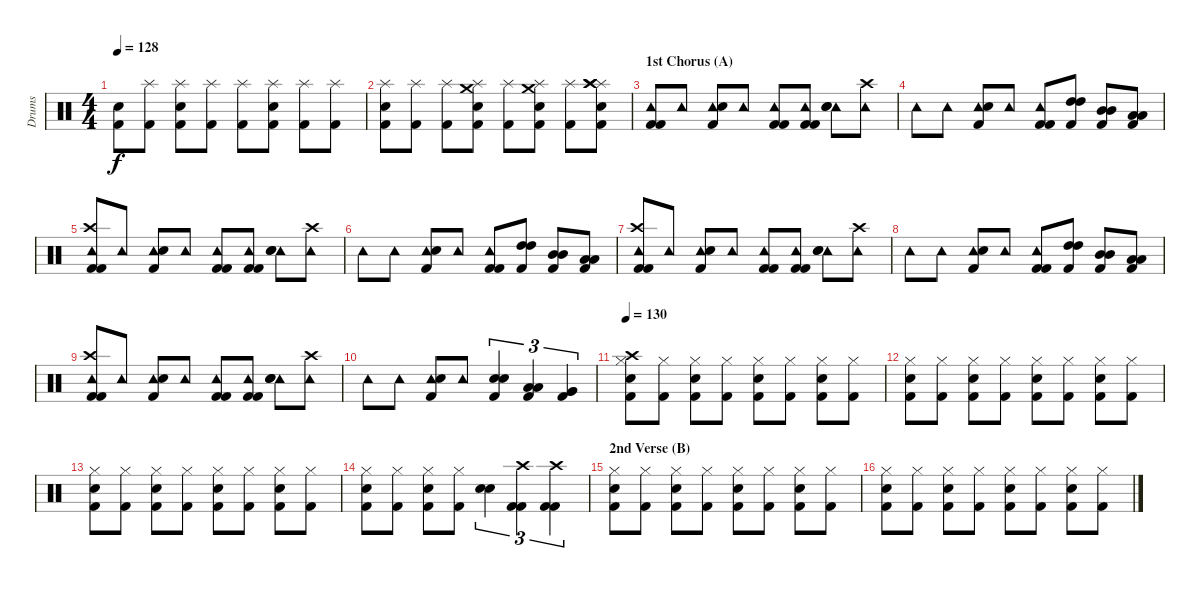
\track ("Drums" "Drums") {instrument percussion}
\staff {score}
\articulation defaults
\ts (4 4)
\tempo 128
\clef neutral
\ks c
("Kick (hit) 2" "Snare (hit)"{t}).8{dy f} ("Splash (hit)" "Kick (hit) 2").8 ("Splash (hit)" "Kick (hit) 2" "Snare (hit) 2").8 ("Splash (hit)" "Kick (hit) 2").8 ("Splash (hit)" "Kick (hit) 2").8 ("Splash (hit)" "Kick (hit) 2" "Snare (hit) 2").8 ("Splash (hit)" "Kick (hit) 2").8 ("Splash (hit)" "Kick (hit) 2").8 |
("Splash (hit)" "Kick (hit) 2" "Snare (hit) 2").8 ("Splash (hit)" "Kick (hit) 2").8 ("Splash (hit)" "Kick (hit) 2").8 ("Splash (hit)" "Kick (hit) 2" "Snare (hit) 2" "Crash medium (hit)").8 ("Splash (hit)" "Kick (hit) 2").8 ("Splash (hit)" "Kick (hit) 2" "Snare (hit) 2" "Crash medium (hit)").8 ("Splash (hit)" "Kick (hit) 2").8 ("Splash (hit)" "Kick (hit) 2" "Snare (hit) 2" "Crash high (hit)" "Crash high (hit)").8 |
\section ("" "1st Chorus (A)")
("Tambourine (hit)" "Kick (hit) 2" "Kick (hit) 2").8 "Tambourine (hit)".8 ("Tambourine (hit)" "Kick (hit) 2" "Snare (hit) 2").8 "Tambourine (hit)".8 ("Tambourine (hit)" "Kick (hit) 2" "Kick (hit) 2").8 ("Tambourine (hit)" "Kick (hit) 2" "Kick (hit) 2").8 ("Tambourine (hit)" "Snare (hit) 2" "Snare (hit) 2").8 ("Tambourine (hit)" "Crash high (hit)").8 |
"Tambourine (hit)".8 "Tambourine (hit)".8 ("Tambourine (hit)" "Kick (hit) 2" "Snare (hit) 2").8 "Tambourine (hit)".8 ("Tambourine (hit)" "Kick (hit) 2" "Kick (hit) 2").8 ("Kick (hit) 2" "High Tom (hit)" "High Tom (hit)").8 ("Kick (hit) 2" "Mid Tom (hit)" "Mid Tom (hit)").8 ("Kick (hit) 2" "Low Tom (hit)" "Low Tom (hit)").8 |
("Tambourine (hit)" "Kick (hit) 2" "Kick (hit) 2" "Crash high (hit)").8 "Tambourine (hit)".8 ("Tambourine (hit)" "Kick (hit) 2" "Snare (hit) 2").8 "Tambourine (hit)".8 ("Tambourine (hit)" "Kick (hit) 2" "Kick (hit) 2").8 ("Tambourine (hit)" "Kick (hit) 2" "Kick (hit) 2").8 ("Tambourine (hit)" "Snare (hit) 2" "Snare (hit) 2").8 ("Tambourine (hit)" "Crash high (hit)").8 |
"Tambourine (hit)".8 "Tambourine (hit)".8 ("Tambourine (hit)" "Kick (hit) 2" "Snare (hit) 2").8 "Tambourine (hit)".8 ("Tambourine (hit)" "Kick (hit) 2" "Kick (hit) 2").8 ("Kick (hit) 2" "High Tom (hit)" "High Tom (hit)").8 ("Kick (hit) 2" "Mid Tom (hit)" "Mid Tom (hit)").8 ("Kick (hit) 2" "Low Tom (hit)" "Low Tom (hit)").8 |
("Tambourine (hit)" "Kick (hit) 2" "Kick (hit) 2" "Crash high (hit)").8 "Tambourine (hit)".8 ("Tambourine (hit)" "Kick (hit) 2" "Snare (hit) 2").8 "Tambourine (hit)".8 ("Tambourine (hit)" "Kick (hit) 2" "Kick (hit) 2").8 ("Tambourine (hit)" "Kick (hit) 2" "Kick (hit) 2").8 ("Tambourine (hit)" "Snare (hit) 2" "Snare (hit) 2").8 ("Tambourine (hit)" "Crash high (hit)").8 |
"Tambourine (hit)".8 "Tambourine (hit)".8 ("Tambourine (hit)" "Kick (hit) 2" "Snare (hit) 2").8 "Tambourine (hit)".8 ("Tambourine (hit)" "Kick (hit) 2" "Kick (hit) 2").8 ("Kick (hit) 2" "High Tom (hit)" "High Tom (hit)").8 ("Kick (hit) 2" "Mid Tom (hit)" "Mid Tom (hit)").8 ("Kick (hit) 2" "Low Tom (hit)" "Low Tom (hit)").8 |
("Tambourine (hit)" "Kick (hit) 2" "Kick (hit) 2" "Crash high (hit)").8 "Tambourine (hit)".8 ("Tambourine (hit)" "Kick (hit) 2" "Snare (hit) 2").8 "Tambourine (hit)".8 ("Tambourine (hit)" "Kick (hit) 2" "Kick (hit) 2").8 ("Tambourine (hit)" "Kick (hit) 2" "Kick (hit) 2").8 ("Tambourine (hit)" "Snare (hit) 2" "Snare (hit) 2").8 ("Tambourine (hit)" "Crash high (hit)").8 |
"Tambourine (hit)".8 "Tambourine (hit)".8 ("Tambourine (hit)" "Kick (hit) 2" "Snare (hit) 2").8 "Tambourine (hit)".8 ("Kick (hit) 2" "Snare (hit) 2" "Snare (hit) 2").4{tu (3 2)} ("Kick (hit) 2" "Low Tom (hit)" "Low Tom (hit)").4{tu (3 2)} ("Kick (hit) 2" "Very Low Tom (hit)" "Very Low Tom (hit)").4{tu (3 2)} |
\tempo 130
("Hi-Hat (closed)" "Kick (hit) 2" "Snare (hit) 2" "Crash high (hit)").8 ("Hi-Hat (closed)" "Kick (hit) 2").8 ("Hi-Hat (closed)" "Kick (hit) 2" "Snare (hit) 2").8 ("Hi-Hat (closed)" "Kick (hit) 2").8 ("Hi-Hat (closed)" "Kick (hit) 2" "Snare (hit) 2").8 ("Hi-Hat (closed)" "Kick (hit) 2").8 ("Hi-Hat (closed)" "Kick (hit) 2" "Snare (hit) 2").8 ("Hi-Hat (closed)" "Kick (hit) 2").8 |
("Hi-Hat (closed)" "Kick (hit) 2" "Snare (hit) 2").8 ("Hi-Hat (closed)" "Kick (hit) 2").8 ("Hi-Hat (closed)" "Kick (hit) 2" "Snare (hit) 2").8 ("Hi-Hat (closed)" "Kick (hit) 2").8 ("Hi-Hat (closed)" "Kick (hit) 2" "Snare (hit) 2").8 ("Hi-Hat (closed)" "Kick (hit) 2").8 ("Hi-Hat (closed)" "Kick (hit) 2" "Snare (hit) 2").8 ("Hi-Hat (closed)" "Kick (hit) 2").8 |
("Hi-Hat (closed)" "Kick (hit) 2" "Snare (hit) 2").8 ("Hi-Hat (closed)" "Kick (hit) 2").8 ("Hi-Hat (closed)" "Kick (hit) 2" "Snare (hit) 2").8 ("Hi-Hat (closed)" "Kick (hit) 2").8 ("Hi-Hat (closed)" "Kick (hit) 2" "Snare (hit) 2").8 ("Hi-Hat (closed)" "Kick (hit) 2").8 ("Hi-Hat (closed)" "Kick (hit) 2" "Snare (hit) 2").8 ("Hi-Hat (closed)" "Kick (hit) 2").8 |
("Hi-Hat (closed)" "Kick (hit) 2" "Snare (hit) 2").8 ("Hi-Hat (closed)" "Kick (hit) 2").8 ("Hi-Hat (closed)" "Kick (hit) 2" "Snare (hit) 2").8 ("Hi-Hat (closed)" "Kick (hit) 2").8 ("Snare (hit) 2" "Snare (hit) 2").4{tu (3 2)} ("Crash high (hit)" "Kick (hit) 2" "Kick (hit) 2").4{tu (3 2)} ("Crash high (hit)" "Kick (hit) 2" "Kick (hit) 2").4{tu (3 2)} |
\section ("" "2nd Verse (B)")
("Hi-Hat (closed)" "Kick (hit) 2" "Snare (hit) 2").8 ("Hi-Hat (closed)" "Kick (hit) 2").8 ("Hi-Hat (closed)" "Kick (hit) 2" "Snare (hit) 2").8 ("Hi-Hat (closed)" "Kick (hit) 2").8 ("Hi-Hat (closed)" "Kick (hit) 2" "Snare (hit) 2").8 ("Hi-Hat (closed)" "Kick (hit) 2").8 ("Hi-Hat (closed)" "Kick (hit) 2" "Snare (hit) 2").8 ("Hi-Hat (closed)" "Kick (hit) 2").8 |
("Hi-Hat (closed)" "Kick (hit) 2" "Snare (hit) 2").8 ("Hi-Hat (closed)" "Kick (hit) 2").8 ("Hi-Hat (closed)" "Kick (hit) 2" "Snare (hit) 2").8 ("Hi-Hat (closed)" "Kick (hit) 2").8 ("Hi-Hat (closed)" "Kick (hit) 2" "Snare (hit) 2").8 ("Hi-Hat (closed)" "Kick (hit) 2").8 ("Hi-Hat (closed)" "Kick (hit) 2" "Snare (hit) 2").8 ("Hi-Hat (closed)" "Kick (hit) 2").8
